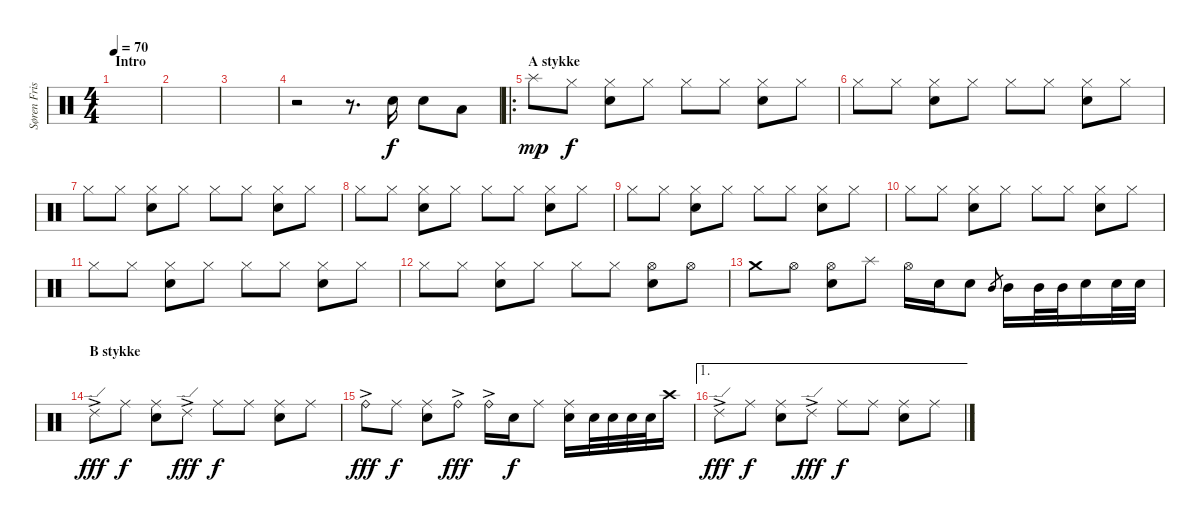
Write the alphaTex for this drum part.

\track ("Søren Fris (Drums)" "Søren Fris") {instrument percussion}
\staff {score}
\articulation defaults
\ts (4 4)
\section ("" "Intro")
\tempo 70
\clef neutral
\ks c
|
|
|
r.2 r.8{d} "Snare (hit) 2".16 "Electric Snare (hit)".8 "Low Tom (hit)".8 |
\ro
\section ("" "A stykke")
"Splash (hit)".8{dy mp} "Hi-Hat (closed)".8{dy f} ("Hi-Hat (closed)" "Snare (hit) 2").8 "Hi-Hat (closed)".8 "Hi-Hat (closed)".8 "Hi-Hat (closed)".8 ("Hi-Hat (closed)" "Snare (hit) 2").8 "Hi-Hat (closed)".8 |
"Hi-Hat (closed)".8 "Hi-Hat (closed)".8 ("Hi-Hat (closed)" "Snare (hit) 2").8 "Hi-Hat (closed)".8 "Hi-Hat (closed)".8 "Hi-Hat (closed)".8 ("Hi-Hat (closed)" "Snare (hit) 2").8 "Hi-Hat (closed)".8 |
"Hi-Hat (closed)".8 "Hi-Hat (closed)".8 ("Hi-Hat (closed)" "Snare (hit) 2").8 "Hi-Hat (closed)".8 "Hi-Hat (closed)".8 "Hi-Hat (closed)".8 ("Hi-Hat (closed)" "Snare (hit) 2").8 "Hi-Hat (closed)".8 |
"Hi-Hat (closed)".8 "Hi-Hat (closed)".8 ("Hi-Hat (closed)" "Snare (hit) 2").8 "Hi-Hat (closed)".8 "Hi-Hat (closed)".8 "Hi-Hat (closed)".8 ("Hi-Hat (closed)" "Snare (hit) 2").8 "Hi-Hat (closed)".8 |
"Hi-Hat (closed)".8 "Hi-Hat (closed)".8 ("Hi-Hat (closed)" "Snare (hit) 2").8 "Hi-Hat (closed)".8 "Hi-Hat (closed)".8 "Hi-Hat (closed)".8 ("Hi-Hat (closed)" "Snare (hit) 2").8 "Hi-Hat (closed)".8 |
"Hi-Hat (closed)".8 "Hi-Hat (closed)".8 ("Hi-Hat (closed)" "Snare (hit) 2").8 "Hi-Hat (closed)".8 "Hi-Hat (closed)".8 "Hi-Hat (closed)".8 ("Hi-Hat (closed)" "Snare (hit) 2").8 "Hi-Hat (closed)".8 |
"Hi-Hat (closed)".8 "Hi-Hat (closed)".8 ("Hi-Hat (closed)" "Snare (hit) 2").8 "Hi-Hat (closed)".8 "Hi-Hat (closed)".8 "Hi-Hat (closed)".8 ("Hi-Hat (closed)" "Snare (hit) 2").8 "Hi-Hat (closed)".8 |
"Hi-Hat (closed)".8 "Hi-Hat (closed)".8 ("Hi-Hat (closed)" "Snare (hit) 2").8 "Hi-Hat (closed)".8 "Hi-Hat (closed)".8 "Hi-Hat (closed)".8 ("Hi-Hat (open)" "Snare (hit) 2").8 "Hi-Hat (open)".8 |
"Crash medium (hit)".8 "Hi-Hat (open)".8 ("Hi-Hat (open)" "Snare (hit) 2").8 "Splash (hit)".8 "Hi-Hat (open)".16 "Snare (hit) 2".16 "Snare (hit) 2".8 "Mid Tom (hit)".8{gr} "Mid Tom (hit)".16 "Mid Tom (hit)".32 "Mid Tom (hit)".32 "Electric Snare (hit)".16 "Electric Snare (hit)".32 "Electric Snare (hit)".32 |
\section ("" "B stykke")
"Ride (edge) 2"{ac}.8{dy fff} "Ride (middle)".8{dy f} ("Ride (middle)" "Snare (hit) 2").8 "Ride (edge) 2"{ac}.8{dy fff} "Ride (middle)".8{dy f} "Ride (middle)".8 ("Ride (middle)" "Snare (hit) 2").8 "Ride (middle)".8 |
"Ride (bell)"{ac}.8{dy fff} "Ride (middle)".8{dy f} ("Ride (middle)" "Snare (hit) 2").8 "Ride (bell)"{ac}.8{dy fff} "Ride (bell)"{ac}.16 "Snare (hit) 2".16{dy f} "Ride (middle)".8 ("Ride (middle)" "Snare (hit) 2").16 "Snare (hit) 2".32 "Snare (hit) 2".32 "Electric Snare (hit)".32 "Electric Snare (hit)".32 "Crash high (hit)".16 |
\ae 1 "Ride (edge) 2"{ac}.8{dy fff} "Ride (middle)".8{dy f}
("Ride (middle)" "Snare (hit) 2").8 "Ride (edge) 2"{ac}.8{dy fff} "Ride (middle)".8{dy f} "Ride (middle)".8 ("Ride (middle)" "Snare (hit) 2").8 "Ride (middle)".8
